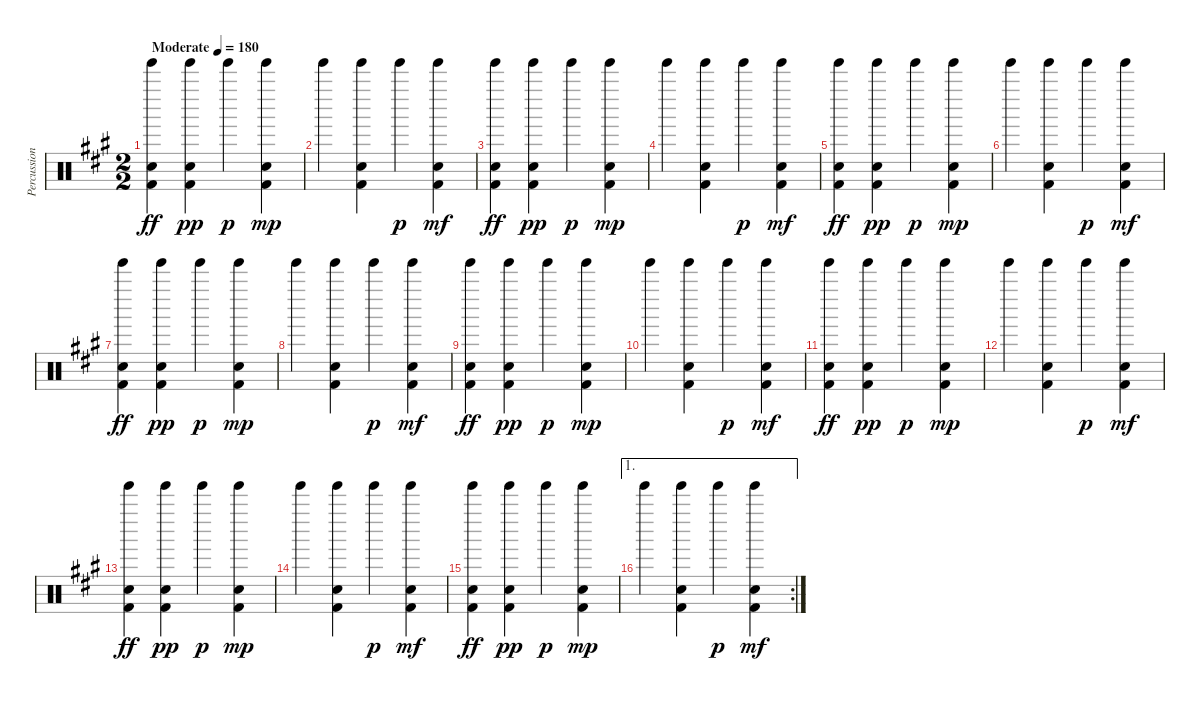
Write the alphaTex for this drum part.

\track ("Percussion" "Percussion") {instrument percussion}
\staff {score}
\articulation defaults
\ts (2 2)
\tempo (180 "Moderate")
\clef neutral
\ks a
("Tinkle Bell (hit)" "Electric Snare (hit)" "Kick (hit) 2").4{dy ff} ("Tinkle Bell (hit)" "Electric Snare (hit)" "Kick (hit) 2").4{dy pp} "Tinkle Bell (hit)".4{dy p} ("Tinkle Bell (hit)" "Electric Snare (hit)" "Kick (hit) 2").4{dy mp} |
"Tinkle Bell (hit)".4 ("Tinkle Bell (hit)" "Electric Snare (hit)" "Kick (hit) 2").4 "Tinkle Bell (hit)".4{dy p} ("Tinkle Bell (hit)" "Electric Snare (hit)" "Kick (hit) 2").4{dy mf} |
("Tinkle Bell (hit)" "Electric Snare (hit)" "Kick (hit) 2").4{dy ff} ("Tinkle Bell (hit)" "Electric Snare (hit)" "Kick (hit) 2").4{dy pp} "Tinkle Bell (hit)".4{dy p} ("Tinkle Bell (hit)" "Electric Snare (hit)" "Kick (hit) 2").4{dy mp} |
"Tinkle Bell (hit)".4 ("Tinkle Bell (hit)" "Electric Snare (hit)" "Kick (hit) 2").4 "Tinkle Bell (hit)".4{dy p} ("Tinkle Bell (hit)" "Electric Snare (hit)" "Kick (hit) 2").4{dy mf} |
("Tinkle Bell (hit)" "Electric Snare (hit)" "Kick (hit) 2").4{dy ff} ("Tinkle Bell (hit)" "Electric Snare (hit)" "Kick (hit) 2").4{dy pp} "Tinkle Bell (hit)".4{dy p} ("Tinkle Bell (hit)" "Electric Snare (hit)" "Kick (hit) 2").4{dy mp} |
"Tinkle Bell (hit)".4 ("Tinkle Bell (hit)" "Electric Snare (hit)" "Kick (hit) 2").4 "Tinkle Bell (hit)".4{dy p} ("Tinkle Bell (hit)" "Electric Snare (hit)" "Kick (hit) 2").4{dy mf} |
("Tinkle Bell (hit)" "Electric Snare (hit)" "Kick (hit) 2").4{dy ff} ("Tinkle Bell (hit)" "Electric Snare (hit)" "Kick (hit) 2").4{dy pp} "Tinkle Bell (hit)".4{dy p} ("Tinkle Bell (hit)" "Electric Snare (hit)" "Kick (hit) 2").4{dy mp} |
"Tinkle Bell (hit)".4 ("Tinkle Bell (hit)" "Electric Snare (hit)" "Kick (hit) 2").4 "Tinkle Bell (hit)".4{dy p} ("Tinkle Bell (hit)" "Electric Snare (hit)" "Kick (hit) 2").4{dy mf} |
("Tinkle Bell (hit)" "Electric Snare (hit)" "Kick (hit) 2").4{dy ff} ("Tinkle Bell (hit)" "Electric Snare (hit)" "Kick (hit) 2").4{dy pp} "Tinkle Bell (hit)".4{dy p} ("Tinkle Bell (hit)" "Electric Snare (hit)" "Kick (hit) 2").4{dy mp} |
"Tinkle Bell (hit)".4 ("Tinkle Bell (hit)" "Electric Snare (hit)" "Kick (hit) 2").4 "Tinkle Bell (hit)".4{dy p} ("Tinkle Bell (hit)" "Electric Snare (hit)" "Kick (hit) 2").4{dy mf} |
("Tinkle Bell (hit)" "Electric Snare (hit)" "Kick (hit) 2").4{dy ff} ("Tinkle Bell (hit)" "Electric Snare (hit)" "Kick (hit) 2").4{dy pp} "Tinkle Bell (hit)".4{dy p} ("Tinkle Bell (hit)" "Electric Snare (hit)" "Kick (hit) 2").4{dy mp} |
"Tinkle Bell (hit)".4 ("Tinkle Bell (hit)" "Electric Snare (hit)" "Kick (hit) 2").4 "Tinkle Bell (hit)".4{dy p} ("Tinkle Bell (hit)" "Electric Snare (hit)" "Kick (hit) 2").4{dy mf} |
("Tinkle Bell (hit)" "Electric Snare (hit)" "Kick (hit) 2").4{dy ff} ("Tinkle Bell (hit)" "Electric Snare (hit)" "Kick (hit) 2").4{dy pp} "Tinkle Bell (hit)".4{dy p} ("Tinkle Bell (hit)" "Electric Snare (hit)" "Kick (hit) 2").4{dy mp} |
"Tinkle Bell (hit)".4 ("Tinkle Bell (hit)" "Electric Snare (hit)" "Kick (hit) 2").4 "Tinkle Bell (hit)".4{dy p} ("Tinkle Bell (hit)" "Electric Snare (hit)" "Kick (hit) 2").4{dy mf} |
("Tinkle Bell (hit)" "Electric Snare (hit)" "Kick (hit) 2").4{dy ff} ("Tinkle Bell (hit)" "Electric Snare (hit)" "Kick (hit) 2").4{dy pp} "Tinkle Bell (hit)".4{dy p} ("Tinkle Bell (hit)" "Electric Snare (hit)" "Kick (hit) 2").4{dy mp} |
\ae 1
\rc 2 "Tinkle Bell (hit)".4
("Tinkle Bell (hit)" "Electric Snare (hit)" "Kick (hit) 2").4 "Tinkle Bell (hit)".4{dy p} ("Tinkle Bell (hit)" "Electric Snare (hit)" "Kick (hit) 2").4{dy mf}
